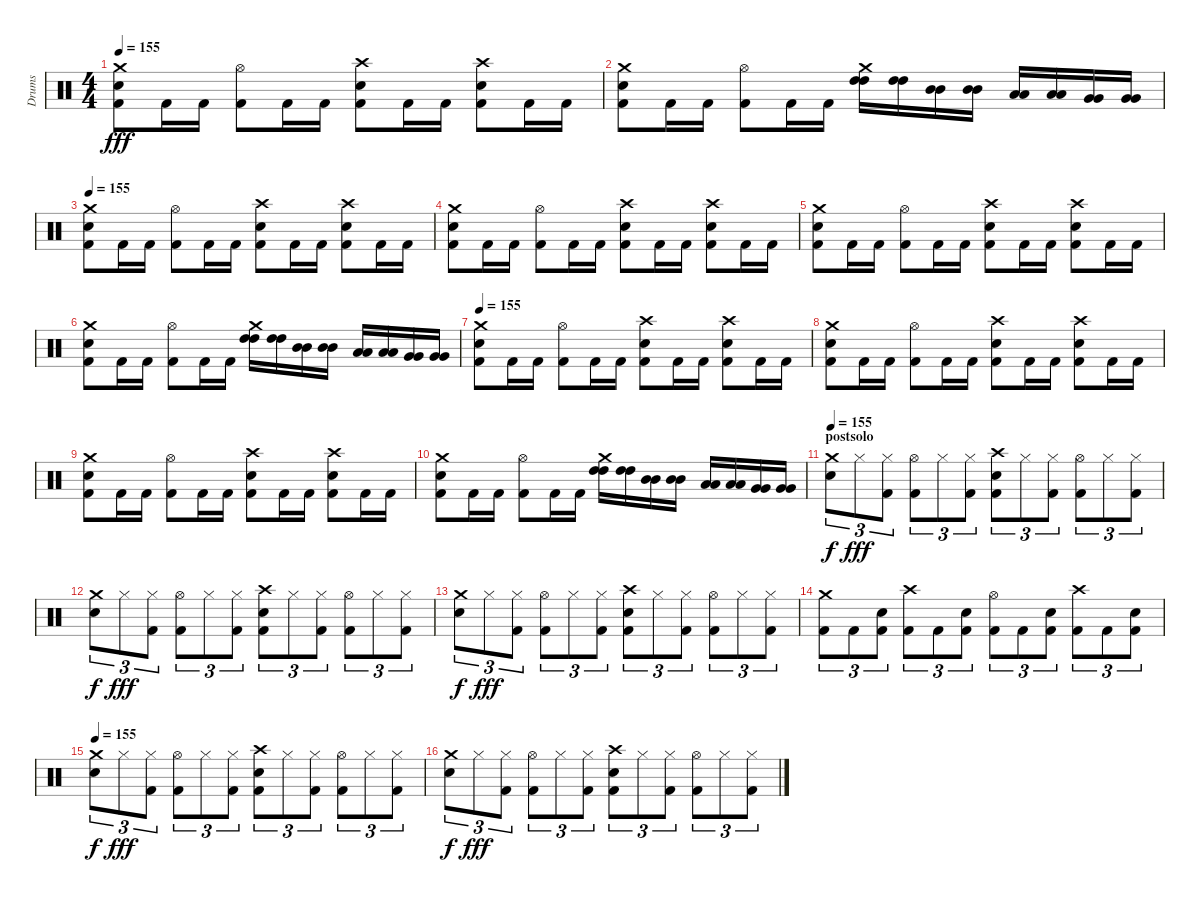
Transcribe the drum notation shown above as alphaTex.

\track ("Drums" "Drums") {instrument percussion}
\staff {score}
\articulation defaults
\ts (4 4)
\tempo 155
\clef neutral
\ks c
("Crash medium (hit)" "Electric Snare (hit)" "Kick (hit) 2").8{dy fff} "Kick (hit) 2".16 "Kick (hit) 2".16 ("Hi-Hat (open)" "Kick (hit) 2").8 "Kick (hit) 2".16 "Kick (hit) 2".16 ("Crash high (hit)" "Electric Snare (hit)" "Kick (hit) 2").8 "Kick (hit) 2".16 "Kick (hit) 2".16 ("Crash high (hit)" "Electric Snare (hit)" "Kick (hit) 2").8 "Kick (hit) 2".16 "Kick (hit) 2".16 |
("Crash medium (hit)" "Electric Snare (hit)" "Kick (hit) 2").8 "Kick (hit) 2".16 "Kick (hit) 2".16 ("Hi-Hat (open)" "Kick (hit) 2").8 "Kick (hit) 2".16 "Kick (hit) 2".16 ("Crash medium (hit)" "High Tom (hit)" "High Tom (hit)").16 ("High Tom (hit)" "High Tom (hit)").16 ("Mid Tom (hit)" "Mid Tom (hit)").16 ("Mid Tom (hit)" "Mid Tom (hit)").16 ("Low Tom (hit)" "Low Tom (hit)").16 ("Low Tom (hit)" "Low Tom (hit)").16 ("Very Low Tom (hit)" "Very Low Tom (hit)").16 ("Very Low Tom (hit)" "Very Low Tom (hit)").16 |
\tempo 155
("Crash medium (hit)" "Electric Snare (hit)" "Kick (hit) 2").8 "Kick (hit) 2".16 "Kick (hit) 2".16 ("Hi-Hat (open)" "Kick (hit) 2").8 "Kick (hit) 2".16 "Kick (hit) 2".16 ("Crash high (hit)" "Electric Snare (hit)" "Kick (hit) 2").8 "Kick (hit) 2".16 "Kick (hit) 2".16 ("Crash high (hit)" "Electric Snare (hit)" "Kick (hit) 2").8 "Kick (hit) 2".16 "Kick (hit) 2".16 |
("Crash medium (hit)" "Electric Snare (hit)" "Kick (hit) 2").8 "Kick (hit) 2".16 "Kick (hit) 2".16 ("Hi-Hat (open)" "Kick (hit) 2").8 "Kick (hit) 2".16 "Kick (hit) 2".16 ("Crash high (hit)" "Electric Snare (hit)" "Kick (hit) 2").8 "Kick (hit) 2".16 "Kick (hit) 2".16 ("Crash high (hit)" "Electric Snare (hit)" "Kick (hit) 2").8 "Kick (hit) 2".16 "Kick (hit) 2".16 |
("Crash medium (hit)" "Electric Snare (hit)" "Kick (hit) 2").8 "Kick (hit) 2".16 "Kick (hit) 2".16 ("Hi-Hat (open)" "Kick (hit) 2").8 "Kick (hit) 2".16 "Kick (hit) 2".16 ("Crash high (hit)" "Electric Snare (hit)" "Kick (hit) 2").8 "Kick (hit) 2".16 "Kick (hit) 2".16 ("Crash high (hit)" "Electric Snare (hit)" "Kick (hit) 2").8 "Kick (hit) 2".16 "Kick (hit) 2".16 |
("Crash medium (hit)" "Electric Snare (hit)" "Kick (hit) 2").8 "Kick (hit) 2".16 "Kick (hit) 2".16 ("Hi-Hat (open)" "Kick (hit) 2").8 "Kick (hit) 2".16 "Kick (hit) 2".16 ("Crash medium (hit)" "High Tom (hit)" "High Tom (hit)").16 ("High Tom (hit)" "High Tom (hit)").16 ("Mid Tom (hit)" "Mid Tom (hit)").16 ("Mid Tom (hit)" "Mid Tom (hit)").16 ("Low Tom (hit)" "Low Tom (hit)").16 ("Low Tom (hit)" "Low Tom (hit)").16 ("Very Low Tom (hit)" "Very Low Tom (hit)").16 ("Very Low Tom (hit)" "Very Low Tom (hit)").16 |
\tempo 155
("Crash medium (hit)" "Electric Snare (hit)" "Kick (hit) 2").8 "Kick (hit) 2".16 "Kick (hit) 2".16 ("Hi-Hat (open)" "Kick (hit) 2").8 "Kick (hit) 2".16 "Kick (hit) 2".16 ("Crash high (hit)" "Electric Snare (hit)" "Kick (hit) 2").8 "Kick (hit) 2".16 "Kick (hit) 2".16 ("Crash high (hit)" "Electric Snare (hit)" "Kick (hit) 2").8 "Kick (hit) 2".16 "Kick (hit) 2".16 |
("Crash medium (hit)" "Electric Snare (hit)" "Kick (hit) 2").8 "Kick (hit) 2".16 "Kick (hit) 2".16 ("Hi-Hat (open)" "Kick (hit) 2").8 "Kick (hit) 2".16 "Kick (hit) 2".16 ("Crash high (hit)" "Electric Snare (hit)" "Kick (hit) 2").8 "Kick (hit) 2".16 "Kick (hit) 2".16 ("Crash high (hit)" "Electric Snare (hit)" "Kick (hit) 2").8 "Kick (hit) 2".16 "Kick (hit) 2".16 |
("Crash medium (hit)" "Electric Snare (hit)" "Kick (hit) 2").8 "Kick (hit) 2".16 "Kick (hit) 2".16 ("Hi-Hat (open)" "Kick (hit) 2").8 "Kick (hit) 2".16 "Kick (hit) 2".16 ("Crash high (hit)" "Electric Snare (hit)" "Kick (hit) 2").8 "Kick (hit) 2".16 "Kick (hit) 2".16 ("Crash high (hit)" "Electric Snare (hit)" "Kick (hit) 2").8 "Kick (hit) 2".16 "Kick (hit) 2".16 |
("Crash medium (hit)" "Electric Snare (hit)" "Kick (hit) 2").8 "Kick (hit) 2".16 "Kick (hit) 2".16 ("Hi-Hat (open)" "Kick (hit) 2").8 "Kick (hit) 2".16 "Kick (hit) 2".16 ("Crash medium (hit)" "High Tom (hit)" "High Tom (hit)").16 ("High Tom (hit)" "High Tom (hit)").16 ("Mid Tom (hit)" "Mid Tom (hit)").16 ("Mid Tom (hit)" "Mid Tom (hit)").16 ("Low Tom (hit)" "Low Tom (hit)").16 ("Low Tom (hit)" "Low Tom (hit)").16 ("Very Low Tom (hit)" "Very Low Tom (hit)").16 ("Very Low Tom (hit)" "Very Low Tom (hit)").16 |
\section ("" "postsolo")
\tempo 155
("Crash medium (hit)" "Electric Snare (hit)").8{tu (3 2) dy f} "Hi-Hat (closed)".8{tu (3 2) dy fff} ("Hi-Hat (closed)" "Kick (hit) 2").8{tu (3 2)} ("Hi-Hat (open)" "Kick (hit) 2").8{tu (3 2)} "Hi-Hat (closed)".8{tu (3 2)} ("Hi-Hat (closed)" "Kick (hit) 2").8{tu (3 2)} ("Crash high (hit)" "Electric Snare (hit)" "Kick (hit) 2").8{tu (3 2)} "Hi-Hat (closed)".8{tu (3 2)} ("Hi-Hat (closed)" "Kick (hit) 2").8{tu (3 2)} ("Hi-Hat (open)" "Kick (hit) 2").8{tu (3 2)} "Hi-Hat (closed)".8{tu (3 2)} ("Hi-Hat (closed)" "Kick (hit) 2").8{tu (3 2)} |
("Crash medium (hit)" "Electric Snare (hit)").8{tu (3 2) dy f} "Hi-Hat (closed)".8{tu (3 2) dy fff} ("Hi-Hat (closed)" "Kick (hit) 2").8{tu (3 2)} ("Hi-Hat (open)" "Kick (hit) 2").8{tu (3 2)} "Hi-Hat (closed)".8{tu (3 2)} ("Hi-Hat (closed)" "Kick (hit) 2").8{tu (3 2)} ("Crash high (hit)" "Electric Snare (hit)" "Kick (hit) 2").8{tu (3 2)} "Hi-Hat (closed)".8{tu (3 2)} ("Hi-Hat (closed)" "Kick (hit) 2").8{tu (3 2)} ("Hi-Hat (open)" "Kick (hit) 2").8{tu (3 2)} "Hi-Hat (closed)".8{tu (3 2)} ("Hi-Hat (closed)" "Kick (hit) 2").8{tu (3 2)} |
("Crash medium (hit)" "Electric Snare (hit)").8{tu (3 2) dy f} "Hi-Hat (closed)".8{tu (3 2) dy fff} ("Hi-Hat (closed)" "Kick (hit) 2").8{tu (3 2)} ("Hi-Hat (open)" "Kick (hit) 2").8{tu (3 2)} "Hi-Hat (closed)".8{tu (3 2)} ("Hi-Hat (closed)" "Kick (hit) 2").8{tu (3 2)} ("Crash high (hit)" "Electric Snare (hit)" "Kick (hit) 2").8{tu (3 2)} "Hi-Hat (closed)".8{tu (3 2)} ("Hi-Hat (closed)" "Kick (hit) 2").8{tu (3 2)} ("Hi-Hat (open)" "Kick (hit) 2").8{tu (3 2)} "Hi-Hat (closed)".8{tu (3 2)} ("Hi-Hat (closed)" "Kick (hit) 2").8{tu (3 2)} |
("Crash medium (hit)" "Kick (hit) 2").8{tu (3 2)} "Kick (hit) 2".8{tu (3 2)} ("Electric Snare (hit)" "Kick (hit) 2").8{tu (3 2)} ("Crash high (hit)" "Kick (hit) 2").8{tu (3 2)} "Kick (hit) 2".8{tu (3 2)} ("Electric Snare (hit)" "Kick (hit) 2").8{tu (3 2)} ("Hi-Hat (open)" "Kick (hit) 2").8{tu (3 2)} "Kick (hit) 2".8{tu (3 2)} ("Electric Snare (hit)" "Kick (hit) 2").8{tu (3 2)} ("Crash high (hit)" "Kick (hit) 2").8{tu (3 2)} "Kick (hit) 2".8{tu (3 2)} ("Electric Snare (hit)" "Kick (hit) 2").8{tu (3 2)} |
\tempo 155
("Crash medium (hit)" "Electric Snare (hit)").8{tu (3 2) dy f} "Hi-Hat (closed)".8{tu (3 2) dy fff} ("Hi-Hat (closed)" "Kick (hit) 2").8{tu (3 2)} ("Hi-Hat (open)" "Kick (hit) 2").8{tu (3 2)} "Hi-Hat (closed)".8{tu (3 2)} ("Hi-Hat (closed)" "Kick (hit) 2").8{tu (3 2)} ("Crash high (hit)" "Electric Snare (hit)" "Kick (hit) 2").8{tu (3 2)} "Hi-Hat (closed)".8{tu (3 2)} ("Hi-Hat (closed)" "Kick (hit) 2").8{tu (3 2)} ("Hi-Hat (open)" "Kick (hit) 2").8{tu (3 2)} "Hi-Hat (closed)".8{tu (3 2)} ("Hi-Hat (closed)" "Kick (hit) 2").8{tu (3 2)} |
("Crash medium (hit)" "Electric Snare (hit)").8{tu (3 2) dy f} "Hi-Hat (closed)".8{tu (3 2) dy fff} ("Hi-Hat (closed)" "Kick (hit) 2").8{tu (3 2)} ("Hi-Hat (open)" "Kick (hit) 2").8{tu (3 2)} "Hi-Hat (closed)".8{tu (3 2)} ("Hi-Hat (closed)" "Kick (hit) 2").8{tu (3 2)} ("Crash high (hit)" "Electric Snare (hit)" "Kick (hit) 2").8{tu (3 2)} "Hi-Hat (closed)".8{tu (3 2)} ("Hi-Hat (closed)" "Kick (hit) 2").8{tu (3 2)} ("Hi-Hat (open)" "Kick (hit) 2").8{tu (3 2)} "Hi-Hat (closed)".8{tu (3 2)} ("Hi-Hat (closed)" "Kick (hit) 2").8{tu (3 2)}
